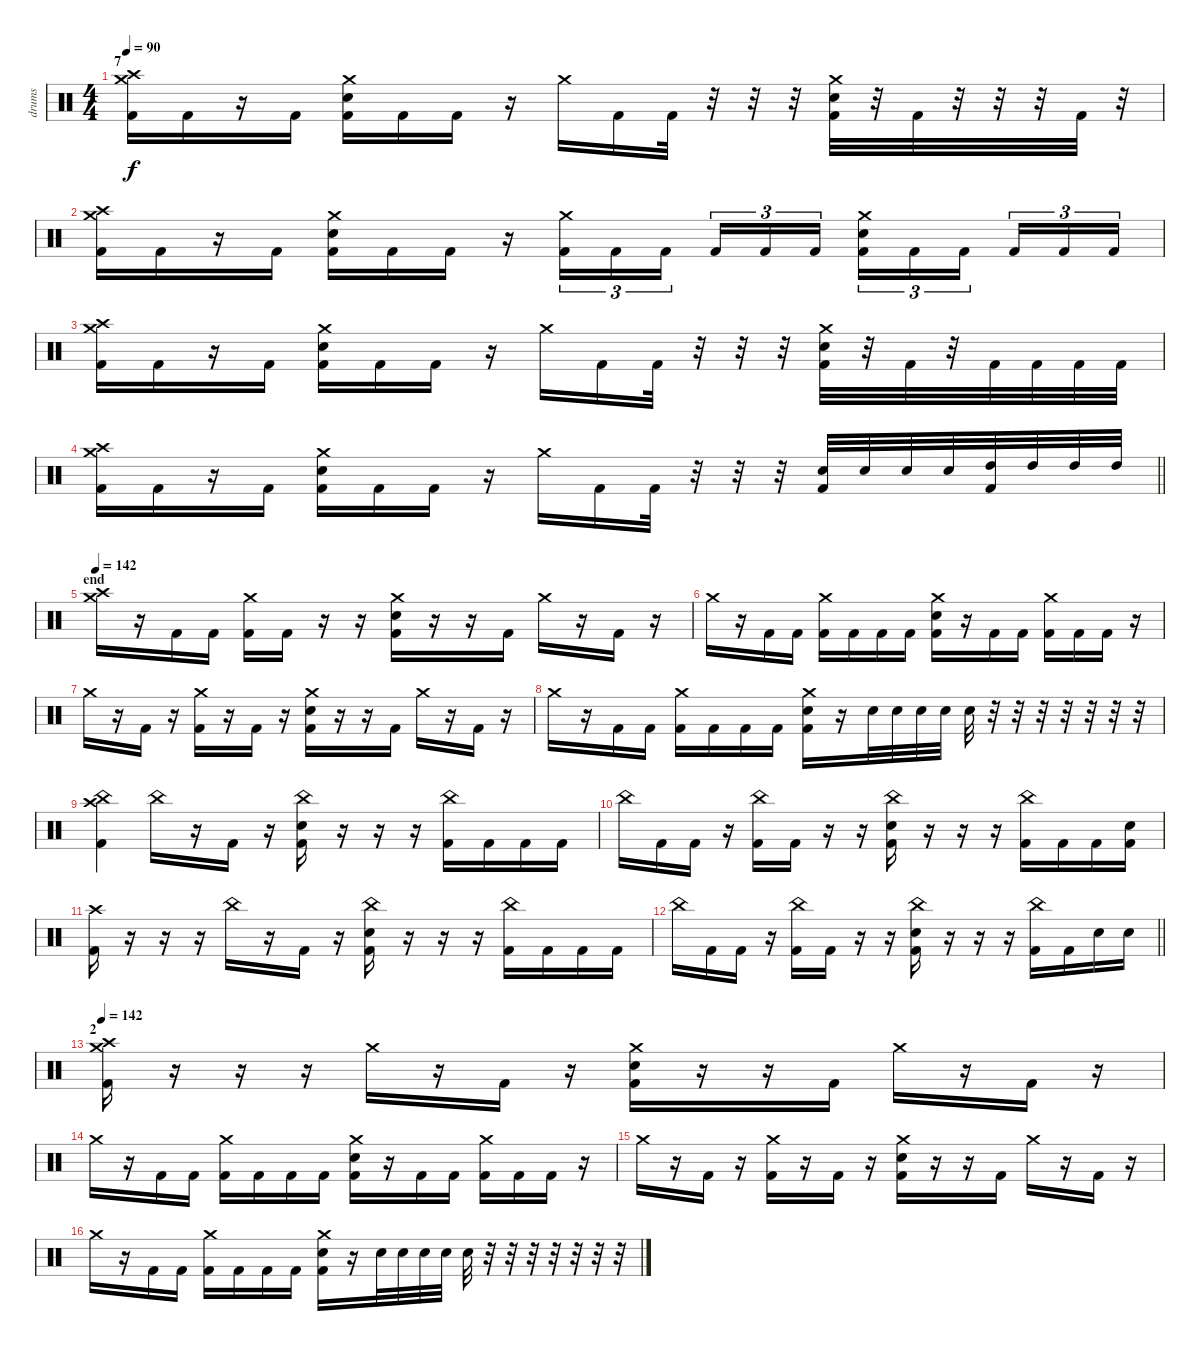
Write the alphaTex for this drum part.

\track ("drums" "drums") {instrument percussion}
\staff {score}
\articulation defaults
\ts (4 4)
\section ("" "7")
\tempo 90
\clef neutral
\ks c
("Crash medium (hit)" "Crash high (hit)" "Kick (hit) 2").16{dy f} "Kick (hit) 2".16 r.16 "Kick (hit) 2".16 ("Crash medium (hit)" "Electric Snare (hit)" "Kick (hit) 2").16 "Kick (hit) 2".16 "Kick (hit) 2".16 r.16 "Crash medium (hit)".16 "Kick (hit) 2".16 "Kick (hit) 2".32 r.32 r.32 r.32 ("Crash medium (hit)" "Electric Snare (hit)" "Kick (hit) 2").32 r.32 "Kick (hit) 2".32 r.32 r.32 r.32 "Kick (hit) 2".32 r.32 |
("Crash medium (hit)" "Crash high (hit)" "Kick (hit) 2").16 "Kick (hit) 2".16 r.16 "Kick (hit) 2".16 ("Crash medium (hit)" "Electric Snare (hit)" "Kick (hit) 2").16 "Kick (hit) 2".16 "Kick (hit) 2".16 r.16 ("Crash medium (hit)" "Kick (hit) 2").16{tu (3 2)} "Kick (hit) 2".16{tu (3 2)} "Kick (hit) 2".16{tu (3 2) beam splitsecondary} "Kick (hit) 2".16{tu (3 2)} "Kick (hit) 2".16{tu (3 2)} "Kick (hit) 2".16{tu (3 2)} ("Crash medium (hit)" "Electric Snare (hit)" "Kick (hit) 2").16{tu (3 2)} "Kick (hit) 2".16{tu (3 2)} "Kick (hit) 2".16{tu (3 2) beam splitsecondary} "Kick (hit) 2".16{tu (3 2)} "Kick (hit) 2".16{tu (3 2)} "Kick (hit) 2".16{tu (3 2)} |
("Crash medium (hit)" "Crash high (hit)" "Kick (hit) 2").16 "Kick (hit) 2".16 r.16 "Kick (hit) 2".16 ("Crash medium (hit)" "Electric Snare (hit)" "Kick (hit) 2").16 "Kick (hit) 2".16 "Kick (hit) 2".16 r.16 "Crash medium (hit)".16 "Kick (hit) 2".16 "Kick (hit) 2".32 r.32 r.32 r.32 ("Crash medium (hit)" "Electric Snare (hit)" "Kick (hit) 2").32 r.32 "Kick (hit) 2".32 r.32 "Kick (hit) 2".32 "Kick (hit) 2".32 "Kick (hit) 2".32 "Kick (hit) 2".32 |
\barLineRight lightlight
("Crash medium (hit)" "Crash high (hit)" "Kick (hit) 2").16 "Kick (hit) 2".16 r.16 "Kick (hit) 2".16 ("Crash medium (hit)" "Electric Snare (hit)" "Kick (hit) 2").16 "Kick (hit) 2".16 "Kick (hit) 2".16 r.16 "Crash medium (hit)".16 "Kick (hit) 2".16 "Kick (hit) 2".32 r.32 r.32 r.32 ("Electric Snare (hit)" "Kick (hit) 2").32 "Electric Snare (hit)".32 "Electric Snare (hit)".32 "Electric Snare (hit)".32 ("High Tom (hit)" "Kick (hit) 2").32 "High Tom (hit)".32 "High Tom (hit)".32 "High Tom (hit)".32 |
\section ("" "end")
\tempo 142
("Crash medium (hit)" "Crash high (hit)").16 r.16 "Kick (hit) 2".16 "Kick (hit) 2".16 ("Crash medium (hit)" "Kick (hit) 2").16 "Kick (hit) 2".16 r.16 r.16 ("Crash medium (hit)" "Electric Snare (hit)" "Kick (hit) 2").16 r.16 r.16 "Kick (hit) 2".16 "Crash medium (hit)".16 r.16 "Kick (hit) 2".16 r.16 |
"Crash medium (hit)".16 r.16 "Kick (hit) 2".16 "Kick (hit) 2".16 ("Crash medium (hit)" "Kick (hit) 2").16 "Kick (hit) 2".16 "Kick (hit) 2".16 "Kick (hit) 2".16 ("Crash medium (hit)" "Electric Snare (hit)" "Kick (hit) 2").16 r.16 "Kick (hit) 2".16 "Kick (hit) 2".16 ("Crash medium (hit)" "Kick (hit) 2").16 "Kick (hit) 2".16 "Kick (hit) 2".16 r.16 |
"Crash medium (hit)".16 r.16 "Kick (hit) 2".16 r.16 ("Crash medium (hit)" "Kick (hit) 2").16 r.16 "Kick (hit) 2".16 r.16 ("Crash medium (hit)" "Electric Snare (hit)" "Kick (hit) 2").16 r.16 r.16 "Kick (hit) 2".16 "Crash medium (hit)".16 r.16 "Kick (hit) 2".16 r.16 |
"Crash medium (hit)".16 r.16 "Kick (hit) 2".16 "Kick (hit) 2".16 ("Crash medium (hit)" "Kick (hit) 2").16 "Kick (hit) 2".16 "Kick (hit) 2".16 "Kick (hit) 2".16 ("Crash medium (hit)" "Electric Snare (hit)" "Kick (hit) 2").16 r.16 "Electric Snare (hit)".32 "Electric Snare (hit)".32 "Electric Snare (hit)".32 "Electric Snare (hit)".32 "Electric Snare (hit)".32 r.32 r.32 r.32 r.32 r.32 r.32 r.32 |
("China (hit)" "Crash high (hit)" "Kick (hit) 2").4 "China (hit)".16 r.16 "Kick (hit) 2".16 r.16 ("China (hit)" "Electric Snare (hit)" "Kick (hit) 2").16 r.16 r.16 r.16 ("China (hit)" "Kick (hit) 2").16 "Kick (hit) 2".16 "Kick (hit) 2".16 "Kick (hit) 2".16 |
"China (hit)".16 "Kick (hit) 2".16 "Kick (hit) 2".16 r.16 ("China (hit)" "Kick (hit) 2").16 "Kick (hit) 2".16 r.16 r.16 ("China (hit)" "Electric Snare (hit)" "Kick (hit) 2").16 r.16 r.16 r.16 ("China (hit)" "Kick (hit) 2").16 "Kick (hit) 2".16 "Kick (hit) 2".16 ("Electric Snare (hit)" "Kick (hit) 2").16 |
("Crash high (hit)" "Kick (hit) 2").16 r.16 r.16 r.16 "China (hit)".16 r.16 "Kick (hit) 2".16 r.16 ("China (hit)" "Electric Snare (hit)" "Kick (hit) 2").16 r.16 r.16 r.16 ("China (hit)" "Kick (hit) 2").16 "Kick (hit) 2".16 "Kick (hit) 2".16 "Kick (hit) 2".16 |
\barLineRight lightlight "China (hit)".16 "Kick (hit) 2".16 "Kick (hit) 2".16
r.16 ("China (hit)" "Kick (hit) 2").16 "Kick (hit) 2".16 r.16 r.16 ("China (hit)" "Electric Snare (hit)" "Kick (hit) 2").16 r.16 r.16 r.16 ("China (hit)" "Kick (hit) 2").16 "Kick (hit) 2".16 "Electric Snare (hit)".16 "Electric Snare (hit)".16 |
\section ("" "2")
\tempo 142
("Crash medium (hit)" "Crash high (hit)" "Kick (hit) 2").16 r.16 r.16 r.16 "Crash medium (hit)".16 r.16 "Kick (hit) 2".16 r.16 ("Crash medium (hit)" "Electric Snare (hit)" "Kick (hit) 2").16 r.16 r.16 "Kick (hit) 2".16 "Crash medium (hit)".16 r.16 "Kick (hit) 2".16 r.16 |
"Crash medium (hit)".16 r.16 "Kick (hit) 2".16 "Kick (hit) 2".16 ("Crash medium (hit)" "Kick (hit) 2").16 "Kick (hit) 2".16 "Kick (hit) 2".16 "Kick (hit) 2".16 ("Crash medium (hit)" "Electric Snare (hit)" "Kick (hit) 2").16 r.16 "Kick (hit) 2".16 "Kick (hit) 2".16 ("Crash medium (hit)" "Kick (hit) 2").16 "Kick (hit) 2".16 "Kick (hit) 2".16 r.16 |
"Crash medium (hit)".16 r.16 "Kick (hit) 2".16 r.16 ("Crash medium (hit)" "Kick (hit) 2").16 r.16 "Kick (hit) 2".16 r.16 ("Crash medium (hit)" "Electric Snare (hit)" "Kick (hit) 2").16 r.16 r.16 "Kick (hit) 2".16 "Crash medium (hit)".16 r.16 "Kick (hit) 2".16 r.16 |
"Crash medium (hit)".16 r.16 "Kick (hit) 2".16 "Kick (hit) 2".16 ("Crash medium (hit)" "Kick (hit) 2").16 "Kick (hit) 2".16 "Kick (hit) 2".16 "Kick (hit) 2".16 ("Crash medium (hit)" "Electric Snare (hit)" "Kick (hit) 2").16 r.16 "Electric Snare (hit)".32 "Electric Snare (hit)".32 "Electric Snare (hit)".32 "Electric Snare (hit)".32 "Electric Snare (hit)".32 r.32 r.32 r.32 r.32 r.32 r.32 r.32
